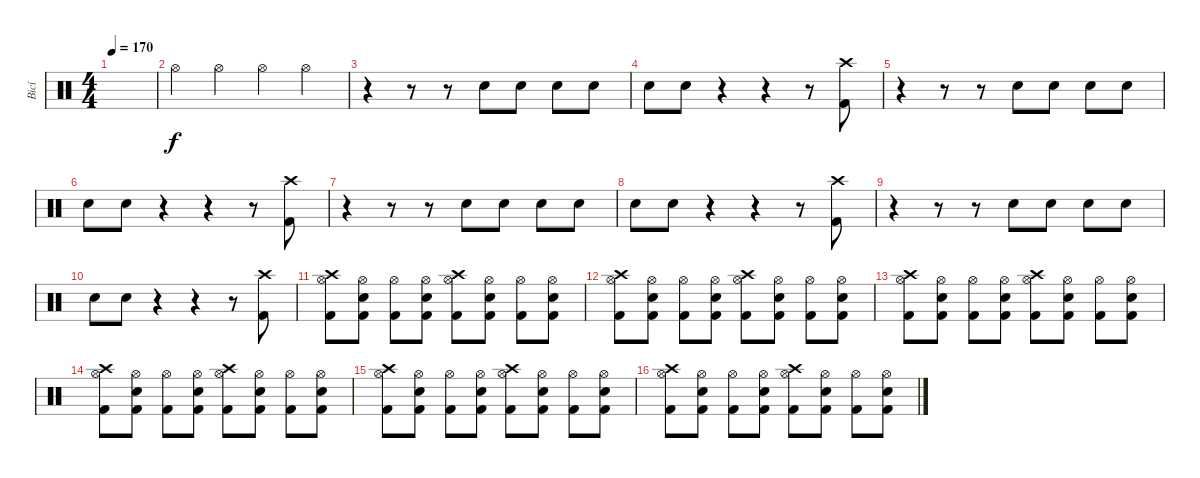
\track ("Bicí" "Bicí") {instrument percussion}
\staff {score}
\articulation defaults
\ts (4 4)
\tempo 170
\clef neutral
\ks c
|
"Hi-Hat (open)".4 "Hi-Hat (open)".4 "Hi-Hat (open)".4 "Hi-Hat (open)".4 |
r.4 r.8 r.8 "Snare (hit) 2".8 "Snare (hit) 2".8 "Snare (hit) 2".8 "Snare (hit) 2".8 |
"Snare (hit) 2".8 "Snare (hit) 2".8 r.4 r.4 r.8 ("Crash high (hit)" "Kick (hit) 2").8 |
r.4 r.8 r.8 "Snare (hit) 2".8 "Snare (hit) 2".8 "Snare (hit) 2".8 "Snare (hit) 2".8 |
"Snare (hit) 2".8 "Snare (hit) 2".8 r.4 r.4 r.8 ("Crash high (hit)" "Kick (hit) 2").8 |
r.4 r.8 r.8 "Snare (hit) 2".8 "Snare (hit) 2".8 "Snare (hit) 2".8 "Snare (hit) 2".8 |
"Snare (hit) 2".8 "Snare (hit) 2".8 r.4 r.4 r.8 ("Crash high (hit)" "Kick (hit) 2").8 |
r.4 r.8 r.8 "Snare (hit) 2".8 "Snare (hit) 2".8 "Snare (hit) 2".8 "Snare (hit) 2".8 |
"Snare (hit) 2".8 "Snare (hit) 2".8 r.4 r.4 r.8 ("Crash high (hit)" "Kick (hit) 2").8 |
("Crash high (hit)" "Hi-Hat (open)" "Kick (hit) 2").8 ("Hi-Hat (open)" "Snare (hit) 2" "Kick (hit) 2").8 ("Hi-Hat (open)" "Kick (hit) 2").8 ("Hi-Hat (open)" "Snare (hit) 2" "Kick (hit) 2").8 ("Crash high (hit)" "Hi-Hat (open)" "Kick (hit) 2").8 ("Hi-Hat (open)" "Snare (hit) 2" "Kick (hit) 2").8 ("Hi-Hat (open)" "Kick (hit) 2").8 ("Hi-Hat (open)" "Snare (hit) 2" "Kick (hit) 2").8 |
("Crash high (hit)" "Hi-Hat (open)" "Kick (hit) 2").8 ("Hi-Hat (open)" "Snare (hit) 2" "Kick (hit) 2").8 ("Hi-Hat (open)" "Kick (hit) 2").8 ("Hi-Hat (open)" "Snare (hit) 2" "Kick (hit) 2").8 ("Crash high (hit)" "Hi-Hat (open)" "Kick (hit) 2").8 ("Hi-Hat (open)" "Snare (hit) 2" "Kick (hit) 2").8 ("Hi-Hat (open)" "Kick (hit) 2").8 ("Hi-Hat (open)" "Snare (hit) 2" "Kick (hit) 2").8 |
("Crash high (hit)" "Hi-Hat (open)" "Kick (hit) 2").8 ("Hi-Hat (open)" "Snare (hit) 2" "Kick (hit) 2").8 ("Hi-Hat (open)" "Kick (hit) 2").8 ("Hi-Hat (open)" "Snare (hit) 2" "Kick (hit) 2").8 ("Crash high (hit)" "Hi-Hat (open)" "Kick (hit) 2").8 ("Hi-Hat (open)" "Snare (hit) 2" "Kick (hit) 2").8 ("Hi-Hat (open)" "Kick (hit) 2").8 ("Hi-Hat (open)" "Snare (hit) 2" "Kick (hit) 2").8 |
("Crash high (hit)" "Hi-Hat (open)" "Kick (hit) 2").8 ("Hi-Hat (open)" "Snare (hit) 2" "Kick (hit) 2").8 ("Hi-Hat (open)" "Kick (hit) 2").8 ("Hi-Hat (open)" "Snare (hit) 2" "Kick (hit) 2").8 ("Crash high (hit)" "Hi-Hat (open)" "Kick (hit) 2").8 ("Hi-Hat (open)" "Snare (hit) 2" "Kick (hit) 2").8 ("Hi-Hat (open)" "Kick (hit) 2").8 ("Hi-Hat (open)" "Snare (hit) 2" "Kick (hit) 2").8 |
("Crash high (hit)" "Hi-Hat (open)" "Kick (hit) 2").8 ("Hi-Hat (open)" "Snare (hit) 2" "Kick (hit) 2").8 ("Hi-Hat (open)" "Kick (hit) 2").8 ("Hi-Hat (open)" "Snare (hit) 2" "Kick (hit) 2").8 ("Crash high (hit)" "Hi-Hat (open)" "Kick (hit) 2").8 ("Hi-Hat (open)" "Snare (hit) 2" "Kick (hit) 2").8 ("Hi-Hat (open)" "Kick (hit) 2").8 ("Hi-Hat (open)" "Snare (hit) 2" "Kick (hit) 2").8 |
("Crash high (hit)" "Hi-Hat (open)" "Kick (hit) 2").8 ("Hi-Hat (open)" "Snare (hit) 2" "Kick (hit) 2").8 ("Hi-Hat (open)" "Kick (hit) 2").8 ("Hi-Hat (open)" "Snare (hit) 2" "Kick (hit) 2").8 ("Crash high (hit)" "Hi-Hat (open)" "Kick (hit) 2").8 ("Hi-Hat (open)" "Snare (hit) 2" "Kick (hit) 2").8 ("Hi-Hat (open)" "Kick (hit) 2").8 ("Hi-Hat (open)" "Snare (hit) 2" "Kick (hit) 2").8
